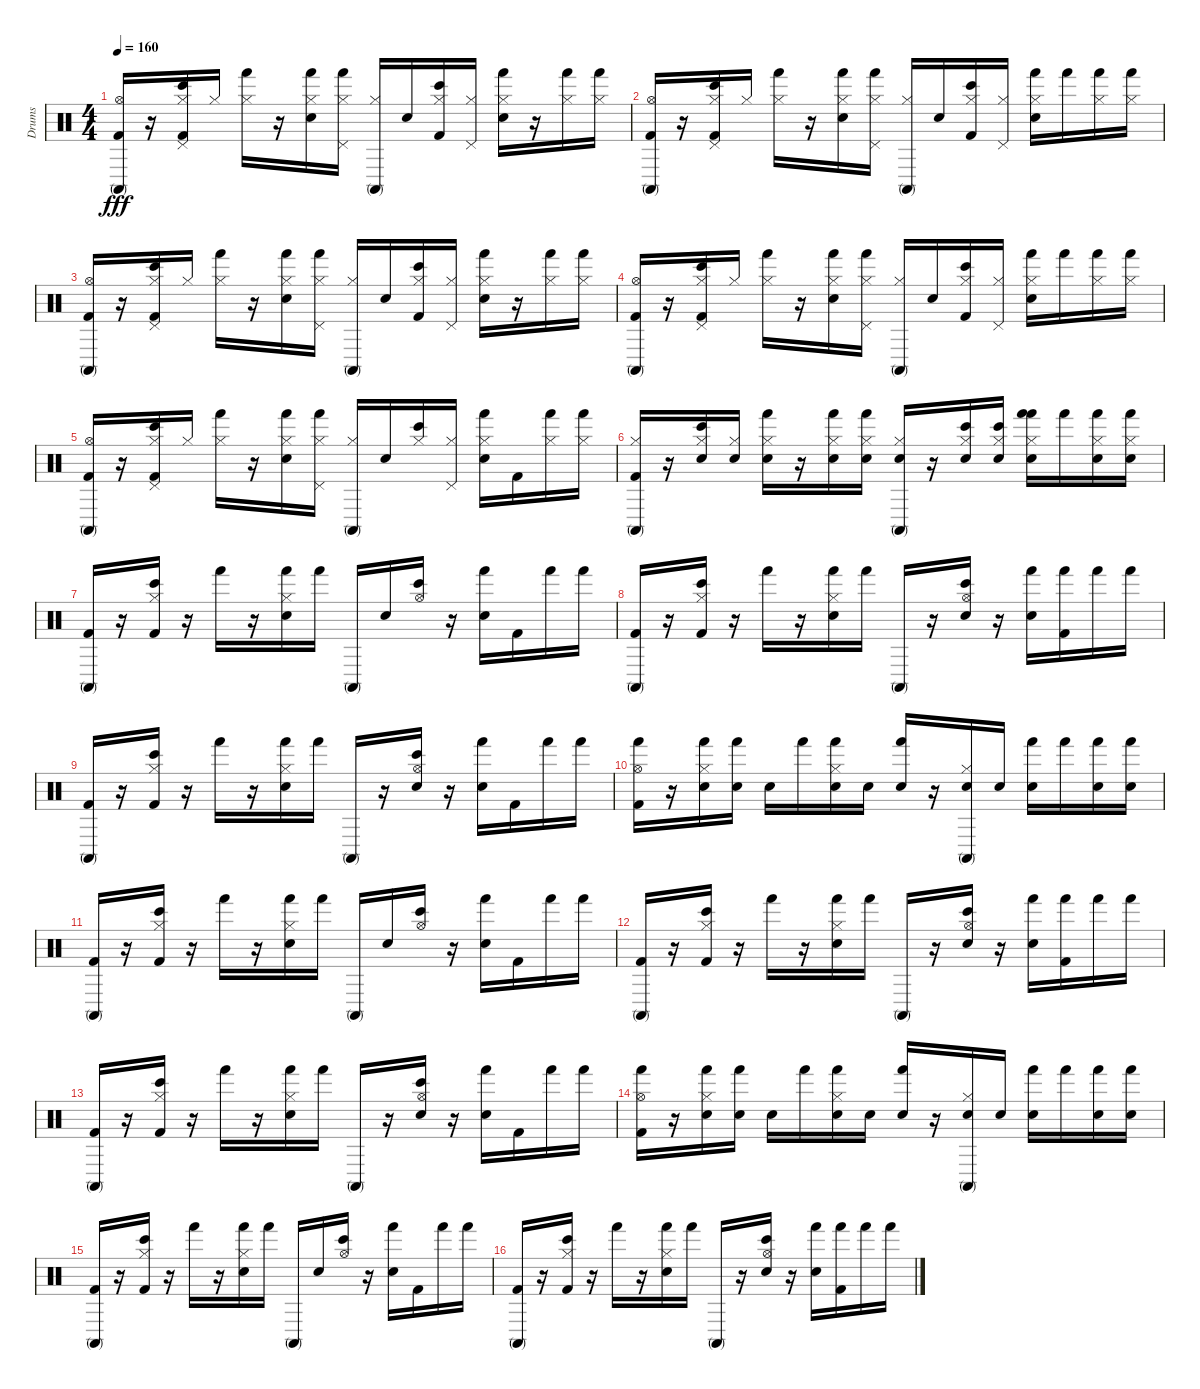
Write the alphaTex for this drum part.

\track ("Drums" "Drums") {instrument percussion}
\staff {score}
\articulation defaults
\ts (4 4)
\tempo 160
\clef neutral
\ks c
("Conga high (mute)" "Kick (hit) 2" "Hi-Hat (open)").16{dy fff} r.16 ("Hi-Hat (closed)" "Kick (hit) 2" "Bongo High (hit)" "Pedal Hi-Hat (hit)").16 "Hi-Hat (closed)".16 ("Hi-Hat (closed)" "Hand (hit)").16 r.16 ("Hi-Hat (closed)" "Electric Snare (hit)" "Hand (hit)").16 ("Hand (hit)" "Hi-Hat (closed)" "Pedal Hi-Hat (hit)").16 ("Hi-Hat (closed)" "Conga high (mute)").16 "Electric Snare (hit)".16 ("Kick (hit) 2" "Bongo High (hit)" "Hi-Hat (closed)").16 ("Pedal Hi-Hat (hit)" "Hi-Hat (closed)").16 ("Electric Snare (hit)" "Hand (hit)" "Hi-Hat (closed)").16 r.16 ("Hand (hit)" "Hi-Hat (closed)").16 ("Hand (hit)" "Hi-Hat (closed)").16 |
("Conga high (mute)" "Kick (hit) 2" "Hi-Hat (open)").16 r.16 ("Hi-Hat (closed)" "Kick (hit) 2" "Bongo High (hit)" "Pedal Hi-Hat (hit)").16 "Hi-Hat (closed)".16 ("Hi-Hat (closed)" "Hand (hit)").16 r.16 ("Hi-Hat (closed)" "Hand (hit)" "Electric Snare (hit)").16 ("Hand (hit)" "Hi-Hat (closed)" "Pedal Hi-Hat (hit)").16 ("Conga high (mute)" "Hi-Hat (closed)").16 "Electric Snare (hit)".16 ("Bongo High (hit)" "Kick (hit) 2" "Hi-Hat (closed)").16 ("Hi-Hat (closed)" "Pedal Hi-Hat (hit)").16 ("Hand (hit)" "Electric Snare (hit)" "Hi-Hat (closed)").16 "Hand (hit)".16 ("Hi-Hat (closed)" "Hand (hit)").16 ("Hand (hit)" "Hi-Hat (closed)").16 |
("Hi-Hat (open)" "Kick (hit) 2" "Conga high (mute)").16 r.16 ("Pedal Hi-Hat (hit)" "Bongo High (hit)" "Kick (hit) 2" "Hi-Hat (closed)").16 "Hi-Hat (closed)".16 ("Hi-Hat (closed)" "Hand (hit)").16 r.16 ("Hi-Hat (closed)" "Electric Snare (hit)" "Hand (hit)").16 ("Hi-Hat (closed)" "Hand (hit)" "Pedal Hi-Hat (hit)").16 ("Hi-Hat (closed)" "Conga high (mute)").16 "Electric Snare (hit)".16 ("Kick (hit) 2" "Bongo High (hit)" "Hi-Hat (closed)").16 ("Pedal Hi-Hat (hit)" "Hi-Hat (closed)").16 ("Hi-Hat (closed)" "Electric Snare (hit)" "Hand (hit)").16 r.16 ("Hand (hit)" "Hi-Hat (closed)").16 ("Hand (hit)" "Hi-Hat (closed)").16 |
("Hi-Hat (open)" "Kick (hit) 2" "Conga high (mute)").16 r.16 ("Kick (hit) 2" "Pedal Hi-Hat (hit)" "Bongo High (hit)" "Hi-Hat (closed)").16 "Hi-Hat (closed)".16 ("Hand (hit)" "Hi-Hat (closed)").16 r.16 ("Hi-Hat (closed)" "Hand (hit)" "Electric Snare (hit)").16 ("Hand (hit)" "Pedal Hi-Hat (hit)" "Hi-Hat (closed)").16 ("Hi-Hat (closed)" "Conga high (mute)").16 "Electric Snare (hit)".16 ("Hi-Hat (closed)" "Bongo High (hit)" "Kick (hit) 2").16 ("Hi-Hat (closed)" "Pedal Hi-Hat (hit)").16 ("Hand (hit)" "Hi-Hat (closed)" "Electric Snare (hit)").16 "Hand (hit)".16 ("Hand (hit)" "Hi-Hat (closed)").16 ("Hi-Hat (closed)" "Hand (hit)").16 |
("Hi-Hat (open)" "Kick (hit) 2" "Conga high (mute)").16 r.16 ("Hi-Hat (closed)" "Bongo High (hit)" "Pedal Hi-Hat (hit)" "Kick (hit) 2").16 "Hi-Hat (closed)".16 ("Hand (hit)" "Hi-Hat (closed)").16 r.16 ("Hi-Hat (closed)" "Hand (hit)" "Electric Snare (hit)").16 ("Hi-Hat (closed)" "Pedal Hi-Hat (hit)" "Hand (hit)").16 ("Hi-Hat (closed)" "Conga high (mute)").16 "Electric Snare (hit)".16 ("Hi-Hat (closed)" "Bongo High (hit)").16 ("Hi-Hat (closed)" "Pedal Hi-Hat (hit)").16 ("Hi-Hat (closed)" "Electric Snare (hit)" "Hand (hit)").16 "Kick (hit) 2".16 ("Hi-Hat (closed)" "Hand (hit)").16 ("Hi-Hat (closed)" "Hand (hit)").16 |
("Hi-Hat (closed)" "Conga high (mute)" "Kick (hit) 2").16 r.16 ("Electric Snare (hit)" "Hi-Hat (closed)" "Bongo High (hit)").16 ("Hi-Hat (closed)" "Electric Snare (hit)").16 ("Hand (hit)" "Hi-Hat (closed)" "Electric Snare (hit)").16 r.16 ("Hand (hit)" "Electric Snare (hit)" "Hi-Hat (closed)").16 ("Electric Snare (hit)" "Hand (hit)" "Hi-Hat (closed)").16 ("Conga high (mute)" "Electric Snare (hit)" "Hi-Hat (closed)").16 r.16 ("Electric Snare (hit)" "Hi-Hat (closed)" "Bongo High (hit)").16 ("Hi-Hat (closed)" "Bongo High (hit)" "Electric Snare (hit)").16 ("Hand (hit)" "Hand (hit)" "Electric Snare (hit)" "Hi-Hat (closed)").16 "Hand (hit)".16 ("Hand (hit)" "Hi-Hat (closed)" "Electric Snare (hit)").16 ("Hi-Hat (closed)" "Hand (hit)" "Electric Snare (hit)").16 |
("Conga high (mute)" "Kick (hit) 2").16 r.16 ("Kick (hit) 2" "Hi-Hat (closed)" "Bongo High (hit)").16 r.16 "Hand (hit)".16 r.16 ("Hi-Hat (closed)" "Hand (hit)" "Electric Snare (hit)").16 "Hand (hit)".16 "Conga high (mute)".16 "Electric Snare (hit)".16 ("Hi-Hat (open)" "Bongo High (hit)").16 r.16 ("Hand (hit)" "Electric Snare (hit)").16 "Kick (hit) 2".16 "Hand (hit)".16 "Hand (hit)".16 |
("Kick (hit) 2" "Conga high (mute)").16 r.16 ("Bongo High (hit)" "Kick (hit) 2" "Hi-Hat (closed)").16 r.16 "Hand (hit)".16 r.16 ("Electric Snare (hit)" "Hi-Hat (closed)" "Hand (hit)").16 "Hand (hit)".16 "Conga high (mute)".16 r.16 ("Electric Snare (hit)" "Hi-Hat (open)" "Bongo High (hit)").16 r.16 ("Hand (hit)" "Electric Snare (hit)").16 ("Hand (hit)" "Kick (hit) 2").16 "Hand (hit)".16 "Hand (hit)".16 |
("Conga high (mute)" "Kick (hit) 2").16 r.16 ("Bongo High (hit)" "Hi-Hat (closed)" "Kick (hit) 2").16 r.16 "Hand (hit)".16 r.16 ("Hi-Hat (closed)" "Hand (hit)" "Electric Snare (hit)").16 "Hand (hit)".16 "Conga high (mute)".16 r.16 ("Hi-Hat (open)" "Electric Snare (hit)" "Bongo High (hit)").16 r.16 ("Hand (hit)" "Electric Snare (hit)").16 "Kick (hit) 2".16 "Hand (hit)".16 "Hand (hit)".16 |
("Hand (hit)" "Kick (hit) 2" "Hi-Hat (open)").16 r.16 ("Electric Snare (hit)" "Hand (hit)" "Hi-Hat (closed)").16 ("Electric Snare (hit)" "Hand (hit)").16 "Electric Snare (hit)".16 "Hand (hit)".16 ("Hi-Hat (closed)" "Electric Snare (hit)" "Hand (hit)").16 "Electric Snare (hit)".16 ("Hand (hit)" "Electric Snare (hit)").16 r.16 ("Electric Snare (hit)" "Conga high (mute)" "Hi-Hat (closed)").16 "Electric Snare (hit)".16 ("Electric Snare (hit)" "Hand (hit)").16 "Hand (hit)".16 ("Electric Snare (hit)" "Hand (hit)").16 ("Electric Snare (hit)" "Hand (hit)").16 |
("Kick (hit) 2" "Conga high (mute)").16 r.16 ("Kick (hit) 2" "Bongo High (hit)" "Hi-Hat (closed)").16 r.16 "Hand (hit)".16 r.16 ("Hi-Hat (closed)" "Hand (hit)" "Electric Snare (hit)").16 "Hand (hit)".16 "Conga high (mute)".16 "Electric Snare (hit)".16 ("Hi-Hat (open)" "Bongo High (hit)").16 r.16 ("Electric Snare (hit)" "Hand (hit)").16 "Kick (hit) 2".16 "Hand (hit)".16 "Hand (hit)".16 |
("Conga high (mute)" "Kick (hit) 2").16 r.16 ("Kick (hit) 2" "Bongo High (hit)" "Hi-Hat (closed)").16 r.16 "Hand (hit)".16 r.16 ("Hand (hit)" "Hi-Hat (closed)" "Electric Snare (hit)").16 "Hand (hit)".16 "Conga high (mute)".16 r.16 ("Hi-Hat (open)" "Electric Snare (hit)" "Bongo High (hit)").16 r.16 ("Electric Snare (hit)" "Hand (hit)").16 ("Hand (hit)" "Kick (hit) 2").16 "Hand (hit)".16 "Hand (hit)".16 |
("Conga high (mute)" "Kick (hit) 2").16 r.16 ("Hi-Hat (closed)" "Kick (hit) 2" "Bongo High (hit)").16 r.16 "Hand (hit)".16 r.16 ("Electric Snare (hit)" "Hand (hit)" "Hi-Hat (closed)").16 "Hand (hit)".16 "Conga high (mute)".16 r.16 ("Electric Snare (hit)" "Hi-Hat (open)" "Bongo High (hit)").16 r.16 ("Hand (hit)" "Electric Snare (hit)").16 "Kick (hit) 2".16 "Hand (hit)".16 "Hand (hit)".16 |
("Hand (hit)" "Hi-Hat (open)" "Kick (hit) 2").16 r.16 ("Hi-Hat (closed)" "Hand (hit)" "Electric Snare (hit)").16 ("Hand (hit)" "Electric Snare (hit)").16 "Electric Snare (hit)".16 "Hand (hit)".16 ("Electric Snare (hit)" "Hi-Hat (closed)" "Hand (hit)").16 "Electric Snare (hit)".16 ("Hand (hit)" "Electric Snare (hit)").16 r.16 ("Conga high (mute)" "Hi-Hat (closed)" "Electric Snare (hit)").16 "Electric Snare (hit)".16 ("Hand (hit)" "Electric Snare (hit)").16 "Hand (hit)".16 ("Hand (hit)" "Electric Snare (hit)").16 ("Electric Snare (hit)" "Hand (hit)").16 |
("Conga high (mute)" "Kick (hit) 2").16 r.16 ("Bongo High (hit)" "Kick (hit) 2" "Hi-Hat (closed)").16 r.16 "Hand (hit)".16 r.16 ("Hand (hit)" "Electric Snare (hit)" "Hi-Hat (closed)").16 "Hand (hit)".16 "Conga high (mute)".16 "Electric Snare (hit)".16 ("Hi-Hat (open)" "Bongo High (hit)").16 r.16 ("Electric Snare (hit)" "Hand (hit)").16 "Kick (hit) 2".16 "Hand (hit)".16 "Hand (hit)".16 |
("Kick (hit) 2" "Conga high (mute)").16 r.16 ("Hi-Hat (closed)" "Kick (hit) 2" "Bongo High (hit)").16 r.16 "Hand (hit)".16 r.16 ("Hi-Hat (closed)" "Hand (hit)" "Electric Snare (hit)").16 "Hand (hit)".16 "Conga high (mute)".16 r.16 ("Hi-Hat (open)" "Bongo High (hit)" "Electric Snare (hit)").16 r.16 ("Hand (hit)" "Electric Snare (hit)").16 ("Kick (hit) 2" "Hand (hit)").16 "Hand (hit)".16 "Hand (hit)".16
